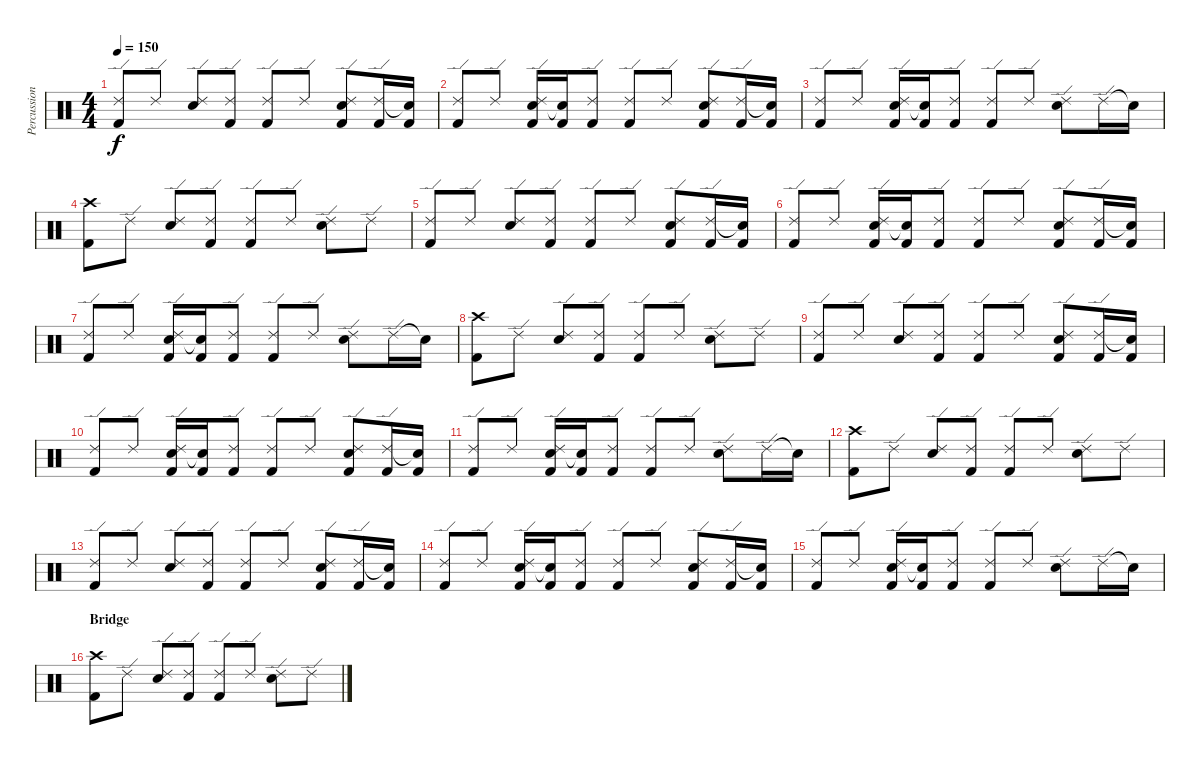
\track ("Percussion" "Percussion") {instrument percussion}
\staff {score}
\articulation defaults
\ts (4 4)
\tempo 150
\clef neutral
\ks c
("Ride (edge) 2" "Kick (hit) 2").8{dy f} "Ride (edge) 2".8 ("Ride (edge) 2" "Electric Snare (hit)").8 ("Ride (edge) 2" "Kick (hit) 2").8 ("Ride (edge) 2" "Kick (hit) 2").8 "Ride (edge) 2".8 ("Electric Snare (hit)" "Ride (edge) 2" "Kick (hit) 2").8 ("Ride (edge) 2" "Kick (hit) 2").16 ("Snare (hit)"{t} "Kick (hit) 2").16 |
("Ride (edge) 2" "Kick (hit) 2").8 "Ride (edge) 2".8 ("Electric Snare (hit)" "Ride (edge) 2" "Kick (hit) 2").16 ("Snare (hit)"{t} "Kick (hit) 2").16 ("Ride (edge) 2" "Kick (hit) 2").8 ("Ride (edge) 2" "Kick (hit) 2").8 "Ride (edge) 2".8 ("Electric Snare (hit)" "Ride (edge) 2" "Kick (hit) 2").8 ("Ride (edge) 2" "Kick (hit) 2").16 ("Snare (hit)"{t} "Kick (hit) 2").16 |
("Ride (edge) 2" "Kick (hit) 2").8 "Ride (edge) 2".8 ("Electric Snare (hit)" "Ride (edge) 2" "Kick (hit) 2").16 ("Snare (hit)"{t} "Kick (hit) 2").16 ("Ride (edge) 2" "Kick (hit) 2").8 ("Ride (edge) 2" "Kick (hit) 2").8 "Ride (edge) 2".8 ("Electric Snare (hit)" "Ride (edge) 2").8 "Ride (edge) 2".16 "Snare (hit)"{t}.16 |
("Crash high (hit)" "Kick (hit) 2").8 "Ride (edge) 2".8 ("Ride (edge) 2" "Electric Snare (hit)").8 ("Ride (edge) 2" "Kick (hit) 2").8 ("Ride (edge) 2" "Kick (hit) 2").8 "Ride (edge) 2".8 ("Ride (edge) 2" "Electric Snare (hit)").8 "Ride (edge) 2".8 |
("Ride (edge) 2" "Kick (hit) 2").8 "Ride (edge) 2".8 ("Ride (edge) 2" "Electric Snare (hit)").8 ("Ride (edge) 2" "Kick (hit) 2").8 ("Ride (edge) 2" "Kick (hit) 2").8 "Ride (edge) 2".8 ("Electric Snare (hit)" "Ride (edge) 2" "Kick (hit) 2").8 ("Ride (edge) 2" "Kick (hit) 2").16 ("Snare (hit)"{t} "Kick (hit) 2").16 |
("Ride (edge) 2" "Kick (hit) 2").8 "Ride (edge) 2".8 ("Electric Snare (hit)" "Ride (edge) 2" "Kick (hit) 2").16 ("Snare (hit)"{t} "Kick (hit) 2").16 ("Ride (edge) 2" "Kick (hit) 2").8 ("Ride (edge) 2" "Kick (hit) 2").8 "Ride (edge) 2".8 ("Electric Snare (hit)" "Ride (edge) 2" "Kick (hit) 2").8 ("Ride (edge) 2" "Kick (hit) 2").16 ("Snare (hit)"{t} "Kick (hit) 2").16 |
("Ride (edge) 2" "Kick (hit) 2").8 "Ride (edge) 2".8 ("Electric Snare (hit)" "Ride (edge) 2" "Kick (hit) 2").16 ("Snare (hit)"{t} "Kick (hit) 2").16 ("Ride (edge) 2" "Kick (hit) 2").8 ("Ride (edge) 2" "Kick (hit) 2").8 "Ride (edge) 2".8 ("Electric Snare (hit)" "Ride (edge) 2").8 "Ride (edge) 2".16 "Snare (hit)"{t}.16 |
("Crash high (hit)" "Kick (hit) 2").8 "Ride (edge) 2".8 ("Ride (edge) 2" "Electric Snare (hit)").8 ("Ride (edge) 2" "Kick (hit) 2").8 ("Ride (edge) 2" "Kick (hit) 2").8 "Ride (edge) 2".8 ("Ride (edge) 2" "Electric Snare (hit)").8 "Ride (edge) 2".8 |
("Ride (edge) 2" "Kick (hit) 2").8 "Ride (edge) 2".8 ("Ride (edge) 2" "Electric Snare (hit)").8 ("Ride (edge) 2" "Kick (hit) 2").8 ("Ride (edge) 2" "Kick (hit) 2").8 "Ride (edge) 2".8 ("Electric Snare (hit)" "Ride (edge) 2" "Kick (hit) 2").8 ("Ride (edge) 2" "Kick (hit) 2").16 ("Snare (hit)"{t} "Kick (hit) 2").16 |
("Ride (edge) 2" "Kick (hit) 2").8 "Ride (edge) 2".8 ("Electric Snare (hit)" "Ride (edge) 2" "Kick (hit) 2").16 ("Snare (hit)"{t} "Kick (hit) 2").16 ("Ride (edge) 2" "Kick (hit) 2").8 ("Ride (edge) 2" "Kick (hit) 2").8 "Ride (edge) 2".8 ("Electric Snare (hit)" "Ride (edge) 2" "Kick (hit) 2").8 ("Ride (edge) 2" "Kick (hit) 2").16 ("Snare (hit)"{t} "Kick (hit) 2").16 |
("Ride (edge) 2" "Kick (hit) 2").8 "Ride (edge) 2".8 ("Electric Snare (hit)" "Ride (edge) 2" "Kick (hit) 2").16 ("Snare (hit)"{t} "Kick (hit) 2").16 ("Ride (edge) 2" "Kick (hit) 2").8 ("Ride (edge) 2" "Kick (hit) 2").8 "Ride (edge) 2".8 ("Electric Snare (hit)" "Ride (edge) 2").8 "Ride (edge) 2".16 "Snare (hit)"{t}.16 |
("Crash high (hit)" "Kick (hit) 2").8 "Ride (edge) 2".8 ("Ride (edge) 2" "Electric Snare (hit)").8 ("Ride (edge) 2" "Kick (hit) 2").8 ("Ride (edge) 2" "Kick (hit) 2").8 "Ride (edge) 2".8 ("Ride (edge) 2" "Electric Snare (hit)").8 "Ride (edge) 2".8 |
("Ride (edge) 2" "Kick (hit) 2").8 "Ride (edge) 2".8 ("Ride (edge) 2" "Electric Snare (hit)").8 ("Ride (edge) 2" "Kick (hit) 2").8 ("Ride (edge) 2" "Kick (hit) 2").8 "Ride (edge) 2".8 ("Electric Snare (hit)" "Ride (edge) 2" "Kick (hit) 2").8 ("Ride (edge) 2" "Kick (hit) 2").16 ("Snare (hit)"{t} "Kick (hit) 2").16 |
("Ride (edge) 2" "Kick (hit) 2").8 "Ride (edge) 2".8 ("Electric Snare (hit)" "Ride (edge) 2" "Kick (hit) 2").16 ("Snare (hit)"{t} "Kick (hit) 2").16 ("Ride (edge) 2" "Kick (hit) 2").8 ("Ride (edge) 2" "Kick (hit) 2").8 "Ride (edge) 2".8 ("Electric Snare (hit)" "Ride (edge) 2" "Kick (hit) 2").8 ("Ride (edge) 2" "Kick (hit) 2").16 ("Snare (hit)"{t} "Kick (hit) 2").16 |
("Ride (edge) 2" "Kick (hit) 2").8 "Ride (edge) 2".8 ("Electric Snare (hit)" "Ride (edge) 2" "Kick (hit) 2").16 ("Snare (hit)"{t} "Kick (hit) 2").16 ("Ride (edge) 2" "Kick (hit) 2").8 ("Ride (edge) 2" "Kick (hit) 2").8 "Ride (edge) 2".8 ("Electric Snare (hit)" "Ride (edge) 2").8 "Ride (edge) 2".16 "Snare (hit)"{t}.16 |
\section ("" "Bridge")
("Crash high (hit)" "Kick (hit) 2").8 "Ride (edge) 2".8 ("Ride (edge) 2" "Electric Snare (hit)").8 ("Ride (edge) 2" "Kick (hit) 2").8 ("Ride (edge) 2" "Kick (hit) 2").8 "Ride (edge) 2".8 ("Ride (edge) 2" "Electric Snare (hit)").8 "Ride (edge) 2".8
